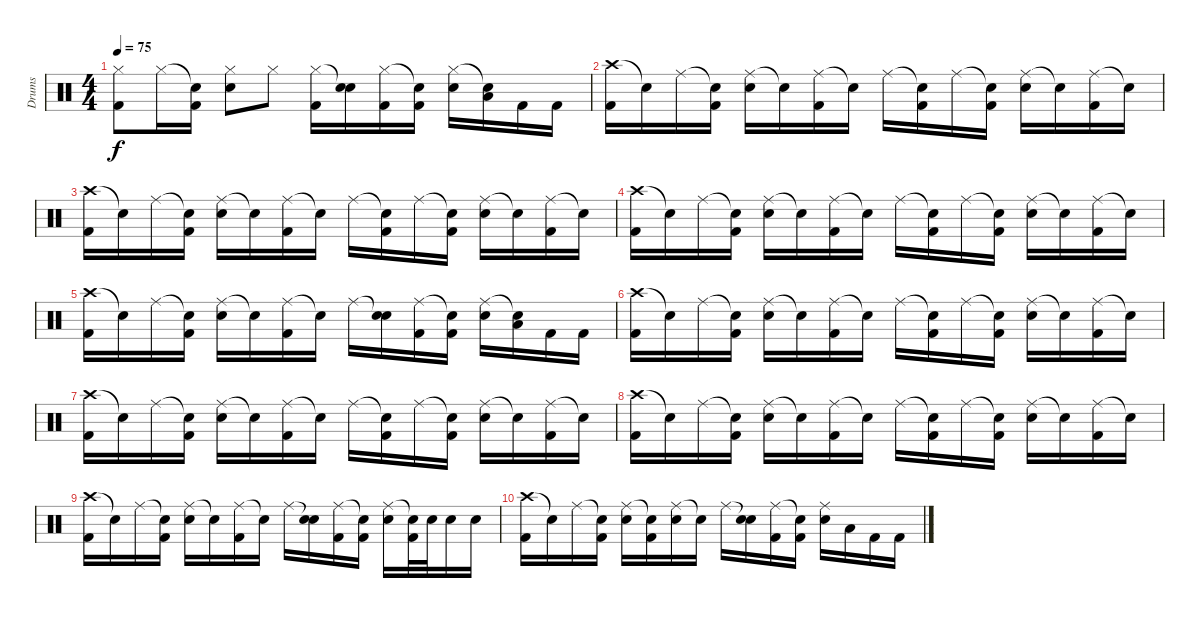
\track ("Drums" "Drums") {instrument percussion}
\staff {score}
\articulation defaults
\ts (4 4)
\tempo 75
\clef neutral
\ks c
("Hi-Hat (closed)" "Kick (hit) 2").8{dy f} "Hi-Hat (closed)".16 ("Snare (hit)"{t} "Kick (hit) 2").16 ("Hi-Hat (closed)" "Electric Snare (hit)").8 "Hi-Hat (closed)".8 ("Hi-Hat (closed)" "Kick (hit) 2").16 ("Snare (hit)"{t} "Electric Snare (hit)").16 ("Hi-Hat (closed)" "Kick (hit) 2").16 ("Snare (hit)"{t} "Kick (hit) 2").16 ("Hi-Hat (closed)" "Electric Snare (hit)").16 ("Snare (hit)"{t} "Low Tom (hit)").16 "Kick (hit) 2".16 "Kick (hit) 2".16 |
("Crash high (hit)" "Kick (hit) 2").16 "Snare (hit)"{t}.16 "Ride (middle)".16 ("Snare (hit)"{t} "Kick (hit) 2").16 ("Ride (middle)" "Electric Snare (hit)").16 "Snare (hit)"{t}.16 ("Ride (middle)" "Kick (hit) 2").16 "Snare (hit)"{t}.16 "Ride (middle)".16 ("Snare (hit)"{t} "Kick (hit) 2").16 "Ride (middle)".16 ("Snare (hit)"{t} "Kick (hit) 2").16 ("Ride (middle)" "Electric Snare (hit)").16 "Snare (hit)"{t}.16 ("Ride (middle)" "Kick (hit) 2").16 "Snare (hit)"{t}.16 |
("Crash high (hit)" "Kick (hit) 2").16 "Snare (hit)"{t}.16 "Ride (middle)".16 ("Snare (hit)"{t} "Kick (hit) 2").16 ("Ride (middle)" "Electric Snare (hit)").16 "Snare (hit)"{t}.16 ("Ride (middle)" "Kick (hit) 2").16 "Snare (hit)"{t}.16 "Ride (middle)".16 ("Snare (hit)"{t} "Kick (hit) 2").16 "Ride (middle)".16 ("Snare (hit)"{t} "Kick (hit) 2").16 ("Ride (middle)" "Electric Snare (hit)").16 "Snare (hit)"{t}.16 ("Ride (middle)" "Kick (hit) 2").16 "Snare (hit)"{t}.16 |
("Crash high (hit)" "Kick (hit) 2").16 "Snare (hit)"{t}.16 "Ride (middle)".16 ("Snare (hit)"{t} "Kick (hit) 2").16 ("Ride (middle)" "Electric Snare (hit)").16 "Snare (hit)"{t}.16 ("Ride (middle)" "Kick (hit) 2").16 "Snare (hit)"{t}.16 "Ride (middle)".16 ("Snare (hit)"{t} "Kick (hit) 2").16 "Ride (middle)".16 ("Snare (hit)"{t} "Kick (hit) 2").16 ("Ride (middle)" "Electric Snare (hit)").16 "Snare (hit)"{t}.16 ("Ride (middle)" "Kick (hit) 2").16 "Snare (hit)"{t}.16 |
("Crash high (hit)" "Kick (hit) 2").16 "Snare (hit)"{t}.16 "Ride (middle)".16 ("Snare (hit)"{t} "Kick (hit) 2").16 ("Ride (middle)" "Electric Snare (hit)").16 "Snare (hit)"{t}.16 ("Ride (middle)" "Kick (hit) 2").16 "Snare (hit)"{t}.16 "Ride (middle)".16 ("Snare (hit)"{t} "Electric Snare (hit)").16 ("Ride (middle)" "Kick (hit) 2").16 ("Snare (hit)"{t} "Kick (hit) 2").16 ("Ride (middle)" "Electric Snare (hit)").16 ("Snare (hit)"{t} "Low Tom (hit)").16 "Kick (hit) 2".16 "Kick (hit) 2".16 |
("Crash high (hit)" "Kick (hit) 2").16 "Snare (hit)"{t}.16 "Ride (middle)".16 ("Snare (hit)"{t} "Kick (hit) 2").16 ("Ride (middle)" "Electric Snare (hit)").16 "Snare (hit)"{t}.16 ("Ride (middle)" "Kick (hit) 2").16 "Snare (hit)"{t}.16 "Ride (middle)".16 ("Snare (hit)"{t} "Kick (hit) 2").16 "Ride (middle)".16 ("Snare (hit)"{t} "Kick (hit) 2").16 ("Ride (middle)" "Electric Snare (hit)").16 "Snare (hit)"{t}.16 ("Ride (middle)" "Kick (hit) 2").16 "Snare (hit)"{t}.16 |
("Crash high (hit)" "Kick (hit) 2").16 "Snare (hit)"{t}.16 "Ride (middle)".16 ("Snare (hit)"{t} "Kick (hit) 2").16 ("Ride (middle)" "Electric Snare (hit)").16 "Snare (hit)"{t}.16 ("Ride (middle)" "Kick (hit) 2").16 "Snare (hit)"{t}.16 "Ride (middle)".16 ("Snare (hit)"{t} "Kick (hit) 2").16 "Ride (middle)".16 ("Snare (hit)"{t} "Kick (hit) 2").16 ("Ride (middle)" "Electric Snare (hit)").16 "Snare (hit)"{t}.16 ("Ride (middle)" "Kick (hit) 2").16 "Snare (hit)"{t}.16 |
("Crash high (hit)" "Kick (hit) 2").16 "Snare (hit)"{t}.16 "Ride (middle)".16 ("Snare (hit)"{t} "Kick (hit) 2").16 ("Ride (middle)" "Electric Snare (hit)").16 "Snare (hit)"{t}.16 ("Ride (middle)" "Kick (hit) 2").16 "Snare (hit)"{t}.16 "Ride (middle)".16 ("Snare (hit)"{t} "Kick (hit) 2").16 "Ride (middle)".16 ("Snare (hit)"{t} "Kick (hit) 2").16 ("Ride (middle)" "Electric Snare (hit)").16 "Snare (hit)"{t}.16 ("Ride (middle)" "Kick (hit) 2").16 "Snare (hit)"{t}.16 |
("Crash high (hit)" "Kick (hit) 2").16 "Snare (hit)"{t}.16 "Ride (middle)".16 ("Snare (hit)"{t} "Kick (hit) 2").16 ("Ride (middle)" "Electric Snare (hit)").16 "Snare (hit)"{t}.16 ("Ride (middle)" "Kick (hit) 2").16 "Snare (hit)"{t}.16 "Ride (middle)".16 ("Snare (hit)"{t} "Electric Snare (hit)").16 ("Ride (middle)" "Kick (hit) 2").16 ("Snare (hit)"{t} "Kick (hit) 2").16 ("Ride (middle)" "Electric Snare (hit)").16 ("Snare (hit)"{t} "Kick (hit) 2").32 "Electric Snare (hit)".32 "Electric Snare (hit)".16 "Electric Snare (hit)".16 |
("Crash high (hit)" "Kick (hit) 2").16 "Snare (hit)"{t}.16 "Ride (middle)".16 ("Snare (hit)"{t} "Kick (hit) 2").16 ("Ride (middle)" "Electric Snare (hit)").16 ("Snare (hit)"{t} "Kick (hit) 2").16 ("Ride (middle)" "Electric Snare (hit)").16 "Snare (hit)"{t}.16 "Ride (middle)".16 ("Snare (hit)"{t} "Electric Snare (hit)").16 ("Ride (middle)" "Kick (hit) 2").16 ("Snare (hit)"{t} "Kick (hit) 2").16 ("Ride (middle)" "Electric Snare (hit)").16 "Low Tom (hit)".16 "Kick (hit) 2".16 "Kick (hit) 2".16
